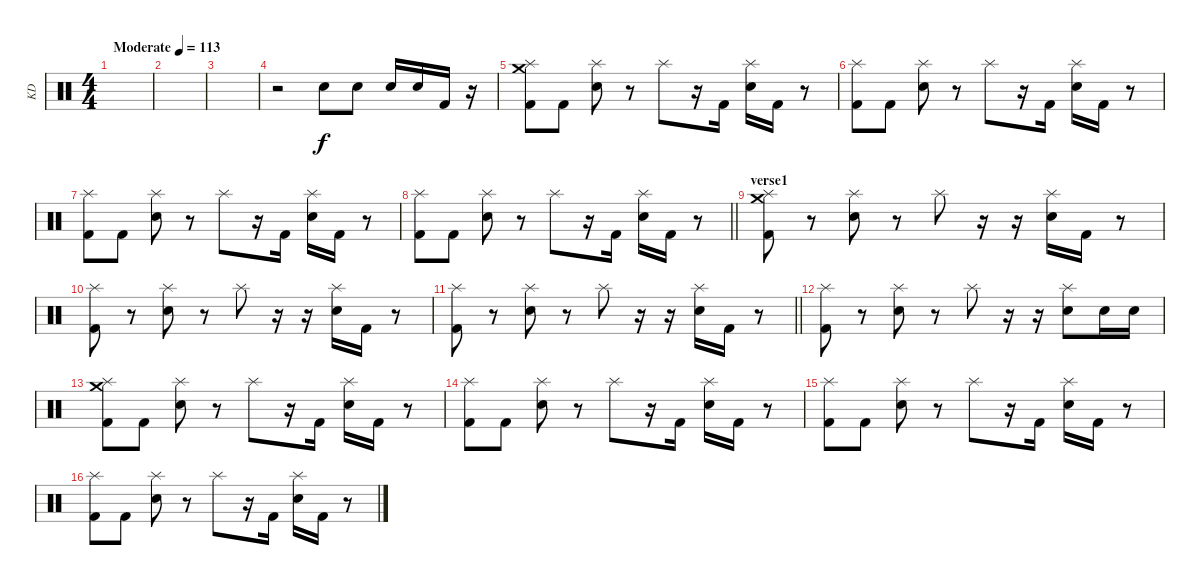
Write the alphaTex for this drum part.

\track ("KD" "KD") {instrument percussion}
\staff {score}
\articulation defaults
\ts (4 4)
\tempo (113 "Moderate")
\clef neutral
\ks c
|
|
|
r.2 "Electric Snare (hit)".8 "Electric Snare (hit)".8 "Electric Snare (hit)".16 "Electric Snare (hit)".16 "Kick (hit) 2".16 r.16 |
("Crash medium (hit)" "Kick (hit) 2" "Splash (hit)").8 "Kick (hit) 2".8 ("Electric Snare (hit)" "Splash (hit)").8 r.8 "Splash (hit)".8 r.16 "Kick (hit) 2".16 ("Electric Snare (hit)" "Splash (hit)").16 "Kick (hit) 2".16 r.8 |
("Kick (hit) 2" "Splash (hit)").8 "Kick (hit) 2".8 ("Electric Snare (hit)" "Splash (hit)").8 r.8 "Splash (hit)".8 r.16 "Kick (hit) 2".16 ("Electric Snare (hit)" "Splash (hit)").16 "Kick (hit) 2".16 r.8 |
("Kick (hit) 2" "Splash (hit)").8 "Kick (hit) 2".8 ("Electric Snare (hit)" "Splash (hit)").8 r.8 "Splash (hit)".8 r.16 "Kick (hit) 2".16 ("Electric Snare (hit)" "Splash (hit)").16 "Kick (hit) 2".16 r.8 |
\barLineRight lightlight
("Kick (hit) 2" "Splash (hit)").8 "Kick (hit) 2".8 ("Electric Snare (hit)" "Splash (hit)").8 r.8 "Splash (hit)".8 r.16 "Kick (hit) 2".16 ("Electric Snare (hit)" "Splash (hit)").16 "Kick (hit) 2".16 r.8 |
\section ("" "verse1")
("Crash medium (hit)" "Kick (hit) 2" "Splash (hit)").8 r.8 ("Electric Snare (hit)" "Splash (hit)").8 r.8 "Splash (hit)".8 r.16 r.16 ("Electric Snare (hit)" "Splash (hit)").16 "Kick (hit) 2".16 r.8 |
("Kick (hit) 2" "Splash (hit)").8 r.8 ("Electric Snare (hit)" "Splash (hit)").8 r.8 "Splash (hit)".8 r.16 r.16 ("Electric Snare (hit)" "Splash (hit)").16 "Kick (hit) 2".16 r.8 |
\barLineRight lightlight
("Kick (hit) 2" "Splash (hit)").8 r.8 ("Electric Snare (hit)" "Splash (hit)").8 r.8 "Splash (hit)".8 r.16 r.16 ("Electric Snare (hit)" "Splash (hit)").16 "Kick (hit) 2".16 r.8 |
("Kick (hit) 2" "Splash (hit)").8 r.8 ("Electric Snare (hit)" "Splash (hit)").8 r.8 "Splash (hit)".8 r.16 r.16 ("Electric Snare (hit)" "Splash (hit)").8 "Electric Snare (hit)".16 "Electric Snare (hit)".16 |
("Crash medium (hit)" "Kick (hit) 2" "Splash (hit)").8 "Kick (hit) 2".8 ("Electric Snare (hit)" "Splash (hit)").8 r.8 "Splash (hit)".8 r.16 "Kick (hit) 2".16 ("Electric Snare (hit)" "Splash (hit)").16 "Kick (hit) 2".16 r.8 |
("Kick (hit) 2" "Splash (hit)").8 "Kick (hit) 2".8 ("Electric Snare (hit)" "Splash (hit)").8 r.8 "Splash (hit)".8 r.16 "Kick (hit) 2".16 ("Electric Snare (hit)" "Splash (hit)").16 "Kick (hit) 2".16 r.8 |
("Kick (hit) 2" "Splash (hit)").8 "Kick (hit) 2".8 ("Electric Snare (hit)" "Splash (hit)").8 r.8 "Splash (hit)".8 r.16 "Kick (hit) 2".16 ("Electric Snare (hit)" "Splash (hit)").16 "Kick (hit) 2".16 r.8 |
("Kick (hit) 2" "Splash (hit)").8 "Kick (hit) 2".8 ("Electric Snare (hit)" "Splash (hit)").8 r.8 "Splash (hit)".8 r.16 "Kick (hit) 2".16 ("Electric Snare (hit)" "Splash (hit)").16 "Kick (hit) 2".16 r.8
